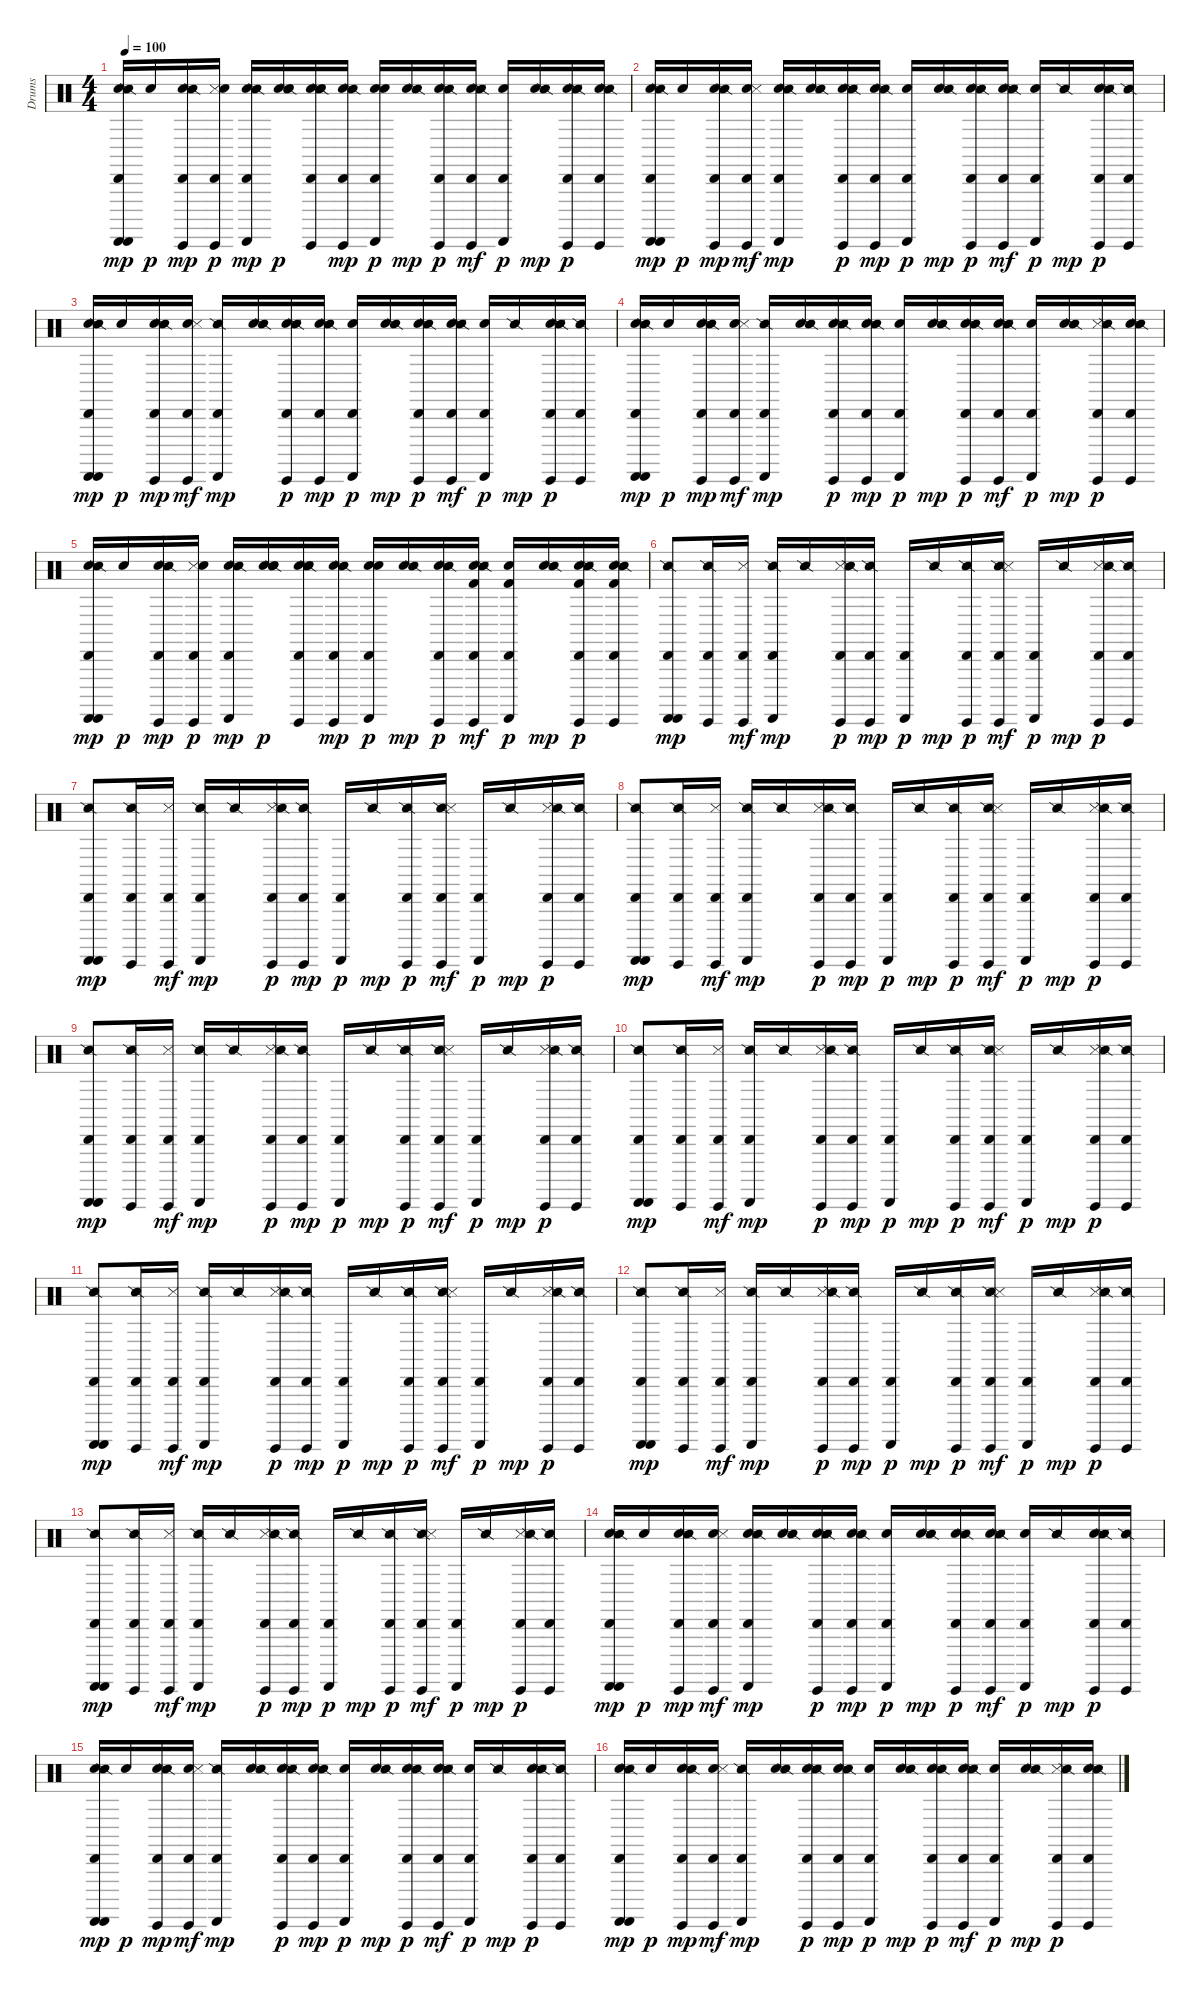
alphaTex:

\track ("Drums" "Drums") {instrument percussion}
\staff {score}
\articulation defaults
\ts (4 4)
\tempo 100
\clef neutral
\ks c
("Electric Snare (hit)" "Cabasa (hit)" "Guiro (scrap-return)" "Guiro (scrap-return)" "Snare (side stick) 2").16{dy mp} "Electric Snare (hit)".16{dy p} ("Electric Snare (hit)" "Cabasa (hit)" "Guiro (hit)" "Snare (side stick) 2").16{dy mp} ("Guiro (hit)" "Cabasa (hit)" "Metronome (hit)" "Electric Snare (hit)").16{dy p} ("Electric Snare (hit)" "Cabasa (hit)" "Guiro (scrap-return)" "Snare (side stick) 2").16{dy mp} ("Electric Snare (hit)" "Snare (side stick) 2" "Electric Snare (hit)").16{dy p} ("Electric Snare (hit)" "Electric Snare (hit)" "Metronome (hit)" "Snare (side stick) 2" "Guiro (hit)" "Cabasa (hit)").16 ("Electric Snare (hit)" "Guiro (hit)" "Cabasa (hit)" "Snare (side stick) 2").16{dy mp} ("Electric Snare (hit)" "Cabasa (hit)" "Guiro (scrap-return)" "Electric Snare (hit)").16{dy p} ("Electric Snare (hit)" "Snare (side stick) 2").16{dy mp} ("Electric Snare (hit)" "Snare (side stick) 2" "Guiro (hit)" "Cabasa (hit)").16{dy p} ("Electric Snare (hit)" "Guiro (hit)" "Snare (side stick) 2" "Cabasa (hit)" "Metronome (hit)").16{dy mf} ("Electric Snare (hit)" "Cabasa (hit)" "Guiro (scrap-return)").16{dy p} ("Electric Snare (hit)" "Snare (side stick) 2").16{dy mp} ("Electric Snare (hit)" "Metronome (hit)" "Guiro (hit)" "Snare (side stick) 2" "Cabasa (hit)").16{dy p} ("Electric Snare (hit)" "Guiro (hit)" "Snare (side stick) 2" "Cabasa (hit)").16 |
("Electric Snare (hit)" "Cabasa (hit)" "Guiro (scrap-return)" "Guiro (scrap-return)" "Snare (side stick) 2").16{dy mp} "Electric Snare (hit)".16{dy p} ("Electric Snare (hit)" "Cabasa (hit)" "Guiro (hit)" "Snare (side stick) 2").16{dy mp} ("Electric Snare (hit)" "Guiro (hit)" "Cabasa (hit)" "Metronome (hit)").16{dy mf} ("Electric Snare (hit)" "Cabasa (hit)" "Guiro (scrap-return)" "Snare (side stick) 2").16{dy mp} ("Electric Snare (hit)" "Snare (side stick) 2").16 ("Electric Snare (hit)" "Metronome (hit)" "Snare (side stick) 2" "Guiro (hit)" "Cabasa (hit)").16{dy p} ("Electric Snare (hit)" "Guiro (hit)" "Cabasa (hit)" "Snare (side stick) 2").16{dy mp} ("Electric Snare (hit)" "Cabasa (hit)" "Guiro (scrap-return)").16{dy p} ("Electric Snare (hit)" "Snare (side stick) 2").16{dy mp} ("Electric Snare (hit)" "Snare (side stick) 2" "Guiro (hit)" "Cabasa (hit)").16{dy p} ("Electric Snare (hit)" "Guiro (hit)" "Snare (side stick) 2" "Cabasa (hit)" "Metronome (hit)").16{dy mf} ("Electric Snare (hit)" "Cabasa (hit)" "Guiro (scrap-return)").16{dy p} "Snare (side stick) 2".16{dy mp} ("Electric Snare (hit)" "Metronome (hit)" "Guiro (hit)" "Snare (side stick) 2" "Cabasa (hit)").16{dy p} ("Guiro (hit)" "Snare (side stick) 2" "Cabasa (hit)").16 |
("Electric Snare (hit)" "Cabasa (hit)" "Guiro (scrap-return)" "Guiro (scrap-return)" "Snare (side stick) 2").16{dy mp} "Electric Snare (hit)".16{dy p} ("Electric Snare (hit)" "Cabasa (hit)" "Guiro (hit)" "Snare (side stick) 2").16{dy mp} ("Electric Snare (hit)" "Guiro (hit)" "Cabasa (hit)" "Metronome (hit)").16{dy mf} ("Cabasa (hit)" "Guiro (scrap-return)" "Snare (side stick) 2").16{dy mp} ("Electric Snare (hit)" "Snare (side stick) 2").16 ("Electric Snare (hit)" "Metronome (hit)" "Snare (side stick) 2" "Guiro (hit)" "Cabasa (hit)").16{dy p} ("Electric Snare (hit)" "Guiro (hit)" "Cabasa (hit)" "Snare (side stick) 2").16{dy mp} ("Electric Snare (hit)" "Cabasa (hit)" "Guiro (scrap-return)").16{dy p} ("Electric Snare (hit)" "Snare (side stick) 2").16{dy mp} ("Electric Snare (hit)" "Snare (side stick) 2" "Guiro (hit)" "Cabasa (hit)").16{dy p} ("Electric Snare (hit)" "Guiro (hit)" "Snare (side stick) 2" "Cabasa (hit)" "Metronome (hit)").16{dy mf} ("Electric Snare (hit)" "Cabasa (hit)" "Guiro (scrap-return)").16{dy p} "Snare (side stick) 2".16{dy mp} ("Electric Snare (hit)" "Metronome (hit)" "Guiro (hit)" "Snare (side stick) 2" "Cabasa (hit)").16{dy p} ("Guiro (hit)" "Snare (side stick) 2" "Cabasa (hit)").16 |
("Electric Snare (hit)" "Cabasa (hit)" "Guiro (scrap-return)" "Guiro (scrap-return)" "Snare (side stick) 2").16{dy mp} "Electric Snare (hit)".16{dy p} ("Electric Snare (hit)" "Cabasa (hit)" "Guiro (hit)" "Snare (side stick) 2").16{dy mp} ("Electric Snare (hit)" "Guiro (hit)" "Cabasa (hit)" "Metronome (hit)").16{dy mf} ("Cabasa (hit)" "Guiro (scrap-return)" "Snare (side stick) 2").16{dy mp} ("Electric Snare (hit)" "Snare (side stick) 2").16 ("Electric Snare (hit)" "Metronome (hit)" "Snare (side stick) 2" "Guiro (hit)" "Cabasa (hit)").16{dy p} ("Electric Snare (hit)" "Guiro (hit)" "Cabasa (hit)" "Snare (side stick) 2").16{dy mp} ("Electric Snare (hit)" "Cabasa (hit)" "Guiro (scrap-return)").16{dy p} ("Electric Snare (hit)" "Snare (side stick) 2").16{dy mp} ("Electric Snare (hit)" "Snare (side stick) 2" "Guiro (hit)" "Cabasa (hit)").16{dy p} ("Electric Snare (hit)" "Guiro (hit)" "Snare (side stick) 2" "Cabasa (hit)" "Metronome (hit)").16{dy mf} ("Electric Snare (hit)" "Cabasa (hit)" "Guiro (scrap-return)").16{dy p} ("Electric Snare (hit)" "Snare (side stick) 2").16{dy mp} ("Metronome (hit)" "Guiro (hit)" "Snare (side stick) 2" "Cabasa (hit)").16{dy p} ("Electric Snare (hit)" "Guiro (hit)" "Snare (side stick) 2" "Cabasa (hit)").16 |
("Electric Snare (hit)" "Cabasa (hit)" "Guiro (scrap-return)" "Guiro (scrap-return)" "Snare (side stick) 2").16{dy mp} "Electric Snare (hit)".16{dy p} ("Electric Snare (hit)" "Cabasa (hit)" "Guiro (hit)" "Snare (side stick) 2").16{dy mp} ("Guiro (hit)" "Cabasa (hit)" "Metronome (hit)" "Electric Snare (hit)").16{dy p} ("Electric Snare (hit)" "Cabasa (hit)" "Guiro (scrap-return)" "Snare (side stick) 2").16{dy mp} ("Electric Snare (hit)" "Snare (side stick) 2" "Electric Snare (hit)").16{dy p} ("Electric Snare (hit)" "Electric Snare (hit)" "Metronome (hit)" "Snare (side stick) 2" "Guiro (hit)" "Cabasa (hit)").16 ("Electric Snare (hit)" "Guiro (hit)" "Cabasa (hit)" "Snare (side stick) 2").16{dy mp} ("Electric Snare (hit)" "Cabasa (hit)" "Guiro (scrap-return)" "Electric Snare (hit)").16{dy p} ("Electric Snare (hit)" "Snare (side stick) 2").16{dy mp} ("Electric Snare (hit)" "Snare (side stick) 2" "Guiro (hit)" "Cabasa (hit)").16{dy p} ("Kick (hit) 2" "Electric Snare (hit)" "Guiro (hit)" "Snare (side stick) 2" "Cabasa (hit)" "Metronome (hit)").16{dy mf} ("Kick (hit) 2" "Electric Snare (hit)" "Cabasa (hit)" "Guiro (scrap-return)").16{dy p} ("Electric Snare (hit)" "Snare (side stick) 2").16{dy mp} ("Electric Snare (hit)" "Metronome (hit)" "Guiro (hit)" "Snare (side stick) 2" "Cabasa (hit)" "Kick (hit) 2").16{dy p} ("Kick (hit) 2" "Electric Snare (hit)" "Guiro (hit)" "Snare (side stick) 2" "Cabasa (hit)").16 |
("Cabasa (hit)" "Guiro (scrap-return)" "Guiro (scrap-return)" "Snare (side stick) 2").8{dy mp} ("Cabasa (hit)" "Guiro (hit)" "Snare (side stick) 2").16 ("Guiro (hit)" "Cabasa (hit)" "Metronome (hit)").16{dy mf} ("Cabasa (hit)" "Guiro (scrap-return)" "Snare (side stick) 2").16{dy mp} "Snare (side stick) 2".16 ("Metronome (hit)" "Snare (side stick) 2" "Guiro (hit)" "Cabasa (hit)").16{dy p} ("Guiro (hit)" "Cabasa (hit)" "Snare (side stick) 2").16{dy mp} ("Cabasa (hit)" "Guiro (scrap-return)").16{dy p} "Snare (side stick) 2".16{dy mp} ("Snare (side stick) 2" "Guiro (hit)" "Cabasa (hit)").16{dy p} ("Guiro (hit)" "Snare (side stick) 2" "Cabasa (hit)" "Metronome (hit)").16{dy mf} ("Cabasa (hit)" "Guiro (scrap-return)").16{dy p} "Snare (side stick) 2".16{dy mp} ("Metronome (hit)" "Guiro (hit)" "Snare (side stick) 2" "Cabasa (hit)").16{dy p} ("Guiro (hit)" "Snare (side stick) 2" "Cabasa (hit)").16 |
("Cabasa (hit)" "Guiro (scrap-return)" "Guiro (scrap-return)" "Snare (side stick) 2").8{dy mp} ("Cabasa (hit)" "Guiro (hit)" "Snare (side stick) 2").16 ("Guiro (hit)" "Cabasa (hit)" "Metronome (hit)").16{dy mf} ("Cabasa (hit)" "Guiro (scrap-return)" "Snare (side stick) 2").16{dy mp} "Snare (side stick) 2".16 ("Metronome (hit)" "Snare (side stick) 2" "Guiro (hit)" "Cabasa (hit)").16{dy p} ("Guiro (hit)" "Cabasa (hit)" "Snare (side stick) 2").16{dy mp} ("Cabasa (hit)" "Guiro (scrap-return)").16{dy p} "Snare (side stick) 2".16{dy mp} ("Snare (side stick) 2" "Guiro (hit)" "Cabasa (hit)").16{dy p} ("Guiro (hit)" "Snare (side stick) 2" "Cabasa (hit)" "Metronome (hit)").16{dy mf} ("Cabasa (hit)" "Guiro (scrap-return)").16{dy p} "Snare (side stick) 2".16{dy mp} ("Metronome (hit)" "Guiro (hit)" "Snare (side stick) 2" "Cabasa (hit)").16{dy p} ("Guiro (hit)" "Snare (side stick) 2" "Cabasa (hit)").16 |
("Cabasa (hit)" "Guiro (scrap-return)" "Guiro (scrap-return)" "Snare (side stick) 2").8{dy mp} ("Cabasa (hit)" "Guiro (hit)" "Snare (side stick) 2").16 ("Guiro (hit)" "Cabasa (hit)" "Metronome (hit)").16{dy mf} ("Cabasa (hit)" "Guiro (scrap-return)" "Snare (side stick) 2").16{dy mp} "Snare (side stick) 2".16 ("Metronome (hit)" "Snare (side stick) 2" "Guiro (hit)" "Cabasa (hit)").16{dy p} ("Guiro (hit)" "Cabasa (hit)" "Snare (side stick) 2").16{dy mp} ("Cabasa (hit)" "Guiro (scrap-return)").16{dy p} "Snare (side stick) 2".16{dy mp} ("Snare (side stick) 2" "Guiro (hit)" "Cabasa (hit)").16{dy p} ("Guiro (hit)" "Snare (side stick) 2" "Cabasa (hit)" "Metronome (hit)").16{dy mf} ("Cabasa (hit)" "Guiro (scrap-return)").16{dy p} "Snare (side stick) 2".16{dy mp} ("Metronome (hit)" "Guiro (hit)" "Snare (side stick) 2" "Cabasa (hit)").16{dy p} ("Guiro (hit)" "Snare (side stick) 2" "Cabasa (hit)").16 |
("Cabasa (hit)" "Guiro (scrap-return)" "Guiro (scrap-return)" "Snare (side stick) 2").8{dy mp} ("Cabasa (hit)" "Guiro (hit)" "Snare (side stick) 2").16 ("Guiro (hit)" "Cabasa (hit)" "Metronome (hit)").16{dy mf} ("Cabasa (hit)" "Guiro (scrap-return)" "Snare (side stick) 2").16{dy mp} "Snare (side stick) 2".16 ("Metronome (hit)" "Snare (side stick) 2" "Guiro (hit)" "Cabasa (hit)").16{dy p} ("Guiro (hit)" "Cabasa (hit)" "Snare (side stick) 2").16{dy mp} ("Cabasa (hit)" "Guiro (scrap-return)").16{dy p} "Snare (side stick) 2".16{dy mp} ("Snare (side stick) 2" "Guiro (hit)" "Cabasa (hit)").16{dy p} ("Guiro (hit)" "Snare (side stick) 2" "Cabasa (hit)" "Metronome (hit)").16{dy mf} ("Cabasa (hit)" "Guiro (scrap-return)").16{dy p} "Snare (side stick) 2".16{dy mp} ("Metronome (hit)" "Guiro (hit)" "Snare (side stick) 2" "Cabasa (hit)").16{dy p} ("Guiro (hit)" "Snare (side stick) 2" "Cabasa (hit)").16 |
("Cabasa (hit)" "Guiro (scrap-return)" "Guiro (scrap-return)" "Snare (side stick) 2").8{dy mp} ("Cabasa (hit)" "Guiro (hit)" "Snare (side stick) 2").16 ("Guiro (hit)" "Cabasa (hit)" "Metronome (hit)").16{dy mf} ("Cabasa (hit)" "Guiro (scrap-return)" "Snare (side stick) 2").16{dy mp} "Snare (side stick) 2".16 ("Metronome (hit)" "Snare (side stick) 2" "Guiro (hit)" "Cabasa (hit)").16{dy p} ("Guiro (hit)" "Cabasa (hit)" "Snare (side stick) 2").16{dy mp} ("Cabasa (hit)" "Guiro (scrap-return)").16{dy p} "Snare (side stick) 2".16{dy mp} ("Snare (side stick) 2" "Guiro (hit)" "Cabasa (hit)").16{dy p} ("Guiro (hit)" "Snare (side stick) 2" "Cabasa (hit)" "Metronome (hit)").16{dy mf} ("Cabasa (hit)" "Guiro (scrap-return)").16{dy p} "Snare (side stick) 2".16{dy mp} ("Metronome (hit)" "Guiro (hit)" "Snare (side stick) 2" "Cabasa (hit)").16{dy p} ("Guiro (hit)" "Snare (side stick) 2" "Cabasa (hit)").16 |
("Cabasa (hit)" "Guiro (scrap-return)" "Guiro (scrap-return)" "Snare (side stick) 2").8{dy mp} ("Cabasa (hit)" "Guiro (hit)" "Snare (side stick) 2").16 ("Guiro (hit)" "Cabasa (hit)" "Metronome (hit)").16{dy mf} ("Cabasa (hit)" "Guiro (scrap-return)" "Snare (side stick) 2").16{dy mp} "Snare (side stick) 2".16 ("Metronome (hit)" "Snare (side stick) 2" "Guiro (hit)" "Cabasa (hit)").16{dy p} ("Guiro (hit)" "Cabasa (hit)" "Snare (side stick) 2").16{dy mp} ("Cabasa (hit)" "Guiro (scrap-return)").16{dy p} "Snare (side stick) 2".16{dy mp} ("Snare (side stick) 2" "Guiro (hit)" "Cabasa (hit)").16{dy p} ("Guiro (hit)" "Snare (side stick) 2" "Cabasa (hit)" "Metronome (hit)").16{dy mf} ("Cabasa (hit)" "Guiro (scrap-return)").16{dy p} "Snare (side stick) 2".16{dy mp} ("Metronome (hit)" "Guiro (hit)" "Snare (side stick) 2" "Cabasa (hit)").16{dy p} ("Guiro (hit)" "Snare (side stick) 2" "Cabasa (hit)").16 |
("Cabasa (hit)" "Guiro (scrap-return)" "Guiro (scrap-return)" "Snare (side stick) 2").8{dy mp} ("Cabasa (hit)" "Guiro (hit)" "Snare (side stick) 2").16 ("Guiro (hit)" "Cabasa (hit)" "Metronome (hit)").16{dy mf} ("Cabasa (hit)" "Guiro (scrap-return)" "Snare (side stick) 2").16{dy mp} "Snare (side stick) 2".16 ("Metronome (hit)" "Snare (side stick) 2" "Guiro (hit)" "Cabasa (hit)").16{dy p} ("Guiro (hit)" "Cabasa (hit)" "Snare (side stick) 2").16{dy mp} ("Cabasa (hit)" "Guiro (scrap-return)").16{dy p} "Snare (side stick) 2".16{dy mp} ("Snare (side stick) 2" "Guiro (hit)" "Cabasa (hit)").16{dy p} ("Guiro (hit)" "Snare (side stick) 2" "Cabasa (hit)" "Metronome (hit)").16{dy mf} ("Cabasa (hit)" "Guiro (scrap-return)").16{dy p} "Snare (side stick) 2".16{dy mp} ("Metronome (hit)" "Guiro (hit)" "Snare (side stick) 2" "Cabasa (hit)").16{dy p} ("Guiro (hit)" "Snare (side stick) 2" "Cabasa (hit)").16 |
("Cabasa (hit)" "Guiro (scrap-return)" "Guiro (scrap-return)" "Snare (side stick) 2").8{dy mp} ("Cabasa (hit)" "Guiro (hit)" "Snare (side stick) 2").16 ("Guiro (hit)" "Cabasa (hit)" "Metronome (hit)").16{dy mf} ("Cabasa (hit)" "Guiro (scrap-return)" "Snare (side stick) 2").16{dy mp} "Snare (side stick) 2".16 ("Metronome (hit)" "Snare (side stick) 2" "Guiro (hit)" "Cabasa (hit)").16{dy p} ("Guiro (hit)" "Cabasa (hit)" "Snare (side stick) 2").16{dy mp} ("Cabasa (hit)" "Guiro (scrap-return)").16{dy p} "Snare (side stick) 2".16{dy mp} ("Snare (side stick) 2" "Guiro (hit)" "Cabasa (hit)").16{dy p} ("Guiro (hit)" "Snare (side stick) 2" "Cabasa (hit)" "Metronome (hit)").16{dy mf} ("Cabasa (hit)" "Guiro (scrap-return)").16{dy p} "Snare (side stick) 2".16{dy mp} ("Metronome (hit)" "Guiro (hit)" "Snare (side stick) 2" "Cabasa (hit)").16{dy p} ("Guiro (hit)" "Snare (side stick) 2" "Cabasa (hit)").16 |
("Electric Snare (hit)" "Cabasa (hit)" "Guiro (scrap-return)" "Guiro (scrap-return)" "Snare (side stick) 2").16{dy mp} "Electric Snare (hit)".16{dy p} ("Electric Snare (hit)" "Cabasa (hit)" "Guiro (hit)" "Snare (side stick) 2").16{dy mp} ("Electric Snare (hit)" "Guiro (hit)" "Cabasa (hit)" "Metronome (hit)").16{dy mf} ("Electric Snare (hit)" "Cabasa (hit)" "Guiro (scrap-return)" "Snare (side stick) 2").16{dy mp} ("Electric Snare (hit)" "Snare (side stick) 2").16 ("Electric Snare (hit)" "Metronome (hit)" "Snare (side stick) 2" "Guiro (hit)" "Cabasa (hit)").16{dy p} ("Electric Snare (hit)" "Guiro (hit)" "Cabasa (hit)" "Snare (side stick) 2").16{dy mp} ("Electric Snare (hit)" "Cabasa (hit)" "Guiro (scrap-return)").16{dy p} ("Electric Snare (hit)" "Snare (side stick) 2").16{dy mp} ("Electric Snare (hit)" "Snare (side stick) 2" "Guiro (hit)" "Cabasa (hit)").16{dy p} ("Electric Snare (hit)" "Guiro (hit)" "Snare (side stick) 2" "Cabasa (hit)" "Metronome (hit)").16{dy mf} ("Electric Snare (hit)" "Cabasa (hit)" "Guiro (scrap-return)").16{dy p} "Snare (side stick) 2".16{dy mp} ("Electric Snare (hit)" "Metronome (hit)" "Guiro (hit)" "Snare (side stick) 2" "Cabasa (hit)").16{dy p} ("Guiro (hit)" "Snare (side stick) 2" "Cabasa (hit)").16 |
("Electric Snare (hit)" "Cabasa (hit)" "Guiro (scrap-return)" "Guiro (scrap-return)" "Snare (side stick) 2").16{dy mp} "Electric Snare (hit)".16{dy p} ("Electric Snare (hit)" "Cabasa (hit)" "Guiro (hit)" "Snare (side stick) 2").16{dy mp} ("Electric Snare (hit)" "Guiro (hit)" "Cabasa (hit)" "Metronome (hit)").16{dy mf} ("Cabasa (hit)" "Guiro (scrap-return)" "Snare (side stick) 2").16{dy mp} ("Electric Snare (hit)" "Snare (side stick) 2").16 ("Electric Snare (hit)" "Metronome (hit)" "Snare (side stick) 2" "Guiro (hit)" "Cabasa (hit)").16{dy p} ("Electric Snare (hit)" "Guiro (hit)" "Cabasa (hit)" "Snare (side stick) 2").16{dy mp} ("Electric Snare (hit)" "Cabasa (hit)" "Guiro (scrap-return)").16{dy p} ("Electric Snare (hit)" "Snare (side stick) 2").16{dy mp} ("Electric Snare (hit)" "Snare (side stick) 2" "Guiro (hit)" "Cabasa (hit)").16{dy p} ("Electric Snare (hit)" "Guiro (hit)" "Snare (side stick) 2" "Cabasa (hit)" "Metronome (hit)").16{dy mf} ("Electric Snare (hit)" "Cabasa (hit)" "Guiro (scrap-return)").16{dy p} "Snare (side stick) 2".16{dy mp} ("Electric Snare (hit)" "Metronome (hit)" "Guiro (hit)" "Snare (side stick) 2" "Cabasa (hit)").16{dy p} ("Guiro (hit)" "Snare (side stick) 2" "Cabasa (hit)").16 |
("Electric Snare (hit)" "Cabasa (hit)" "Guiro (scrap-return)" "Guiro (scrap-return)" "Snare (side stick) 2").16{dy mp} "Electric Snare (hit)".16{dy p} ("Electric Snare (hit)" "Cabasa (hit)" "Guiro (hit)" "Snare (side stick) 2").16{dy mp} ("Electric Snare (hit)" "Guiro (hit)" "Cabasa (hit)" "Metronome (hit)").16{dy mf} ("Cabasa (hit)" "Guiro (scrap-return)" "Snare (side stick) 2").16{dy mp} ("Electric Snare (hit)" "Snare (side stick) 2").16 ("Electric Snare (hit)" "Metronome (hit)" "Snare (side stick) 2" "Guiro (hit)" "Cabasa (hit)").16{dy p} ("Electric Snare (hit)" "Guiro (hit)" "Cabasa (hit)" "Snare (side stick) 2").16{dy mp} ("Electric Snare (hit)" "Cabasa (hit)" "Guiro (scrap-return)").16{dy p} ("Electric Snare (hit)" "Snare (side stick) 2").16{dy mp} ("Electric Snare (hit)" "Snare (side stick) 2" "Guiro (hit)" "Cabasa (hit)").16{dy p} ("Electric Snare (hit)" "Guiro (hit)" "Snare (side stick) 2" "Cabasa (hit)" "Metronome (hit)").16{dy mf} ("Electric Snare (hit)" "Cabasa (hit)" "Guiro (scrap-return)").16{dy p} ("Electric Snare (hit)" "Snare (side stick) 2").16{dy mp} ("Metronome (hit)" "Guiro (hit)" "Snare (side stick) 2" "Cabasa (hit)").16{dy p} ("Electric Snare (hit)" "Guiro (hit)" "Snare (side stick) 2" "Cabasa (hit)").16
